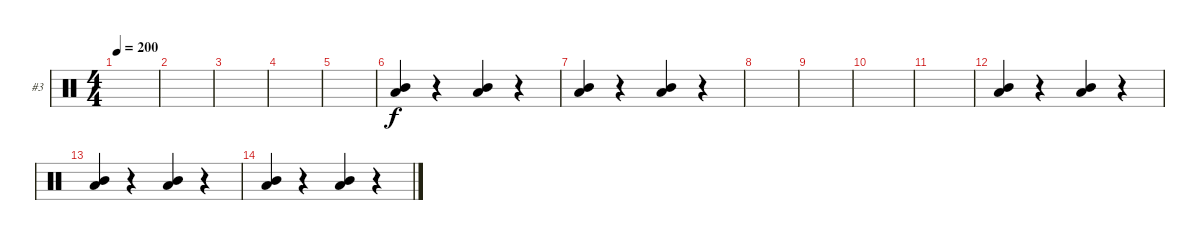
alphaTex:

\bracketExtendMode groupsimilarinstruments
\firstSystemTrackNameOrientation horizontal
\otherSystemsTrackNameOrientation horizontal
\track ("Chris Fehn" "#3") {instrument percussion}
\staff {score}
\articulation defaults
\ts (4 4)
\tempo 200
\clef neutral
\ks c
|
|
|
|
|
("Low Tom (hit)" "Mid Tom (hit)").4 r.4 ("Low Tom (hit)" "Mid Tom (hit)").4 r.4 |
("Low Tom (hit)" "Mid Tom (hit)").4 r.4 ("Low Tom (hit)" "Mid Tom (hit)").4 r.4 |
|
|
|
|
("Low Tom (hit)" "Mid Tom (hit)").4 r.4 ("Low Tom (hit)" "Mid Tom (hit)").4 r.4 |
("Low Tom (hit)" "Mid Tom (hit)").4 r.4 ("Low Tom (hit)" "Mid Tom (hit)").4 r.4 |
("Low Tom (hit)" "Mid Tom (hit)").4 r.4 ("Low Tom (hit)" "Mid Tom (hit)").4 r.4
